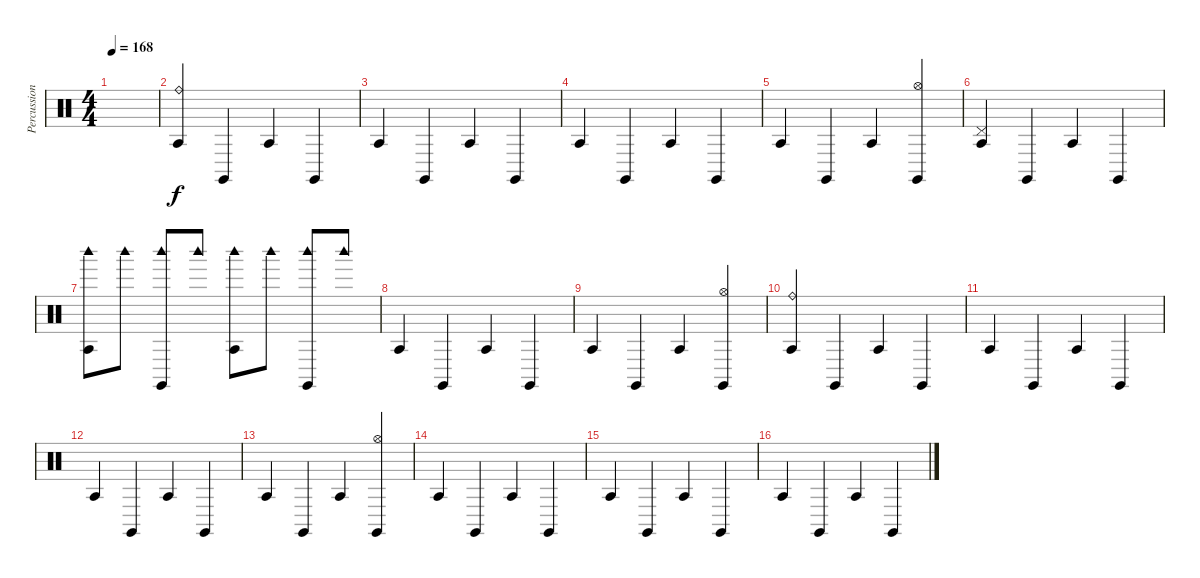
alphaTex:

\track ("Percussion" "Percussion") {instrument percussion}
\staff {score}
\articulation defaults
\ts (4 4)
\tempo 168
\clef neutral
\ks c
|
("Ride (bell)" "Agogo tow (hit)").4 "Claves (hit)".4 "Agogo tow (hit)".4 "Claves (hit)".4 |
"Agogo tow (hit)".4 "Claves (hit)".4 "Agogo tow (hit)".4 "Claves (hit)".4 |
"Agogo tow (hit)".4 "Claves (hit)".4 "Agogo tow (hit)".4 "Claves (hit)".4 |
"Agogo tow (hit)".4 "Claves (hit)".4 "Agogo tow (hit)".4 ("Hi-Hat (open)" "Claves (hit)").4 |
("Pedal Hi-Hat (hit)" "Agogo tow (hit)").4 "Claves (hit)".4 "Agogo tow (hit)".4 "Claves (hit)".4 |
("Woodblock high (hit)" "Agogo tow (hit)").8 "Woodblock high (hit)".8 ("Woodblock high (hit)" "Claves (hit)").8 "Woodblock high (hit)".8 ("Woodblock high (hit)" "Agogo tow (hit)").8 "Woodblock high (hit)".8 ("Woodblock high (hit)" "Claves (hit)").8 "Woodblock high (hit)".8 |
"Agogo tow (hit)".4 "Claves (hit)".4 "Agogo tow (hit)".4 "Claves (hit)".4 |
"Agogo tow (hit)".4 "Claves (hit)".4 "Agogo tow (hit)".4 ("Hi-Hat (open)" "Claves (hit)").4 |
("Ride (bell)" "Agogo tow (hit)").4 "Claves (hit)".4 "Agogo tow (hit)".4 "Claves (hit)".4 |
"Agogo tow (hit)".4 "Claves (hit)".4 "Agogo tow (hit)".4 "Claves (hit)".4 |
"Agogo tow (hit)".4 "Claves (hit)".4 "Agogo tow (hit)".4 "Claves (hit)".4 |
"Agogo tow (hit)".4 "Claves (hit)".4 "Agogo tow (hit)".4 ("Hi-Hat (open)" "Claves (hit)").4 |
"Agogo tow (hit)".4 "Claves (hit)".4 "Agogo tow (hit)".4 "Claves (hit)".4 |
"Agogo tow (hit)".4 "Claves (hit)".4 "Agogo tow (hit)".4 "Claves (hit)".4 |
"Agogo tow (hit)".4 "Claves (hit)".4 "Agogo tow (hit)".4 "Claves (hit)".4
